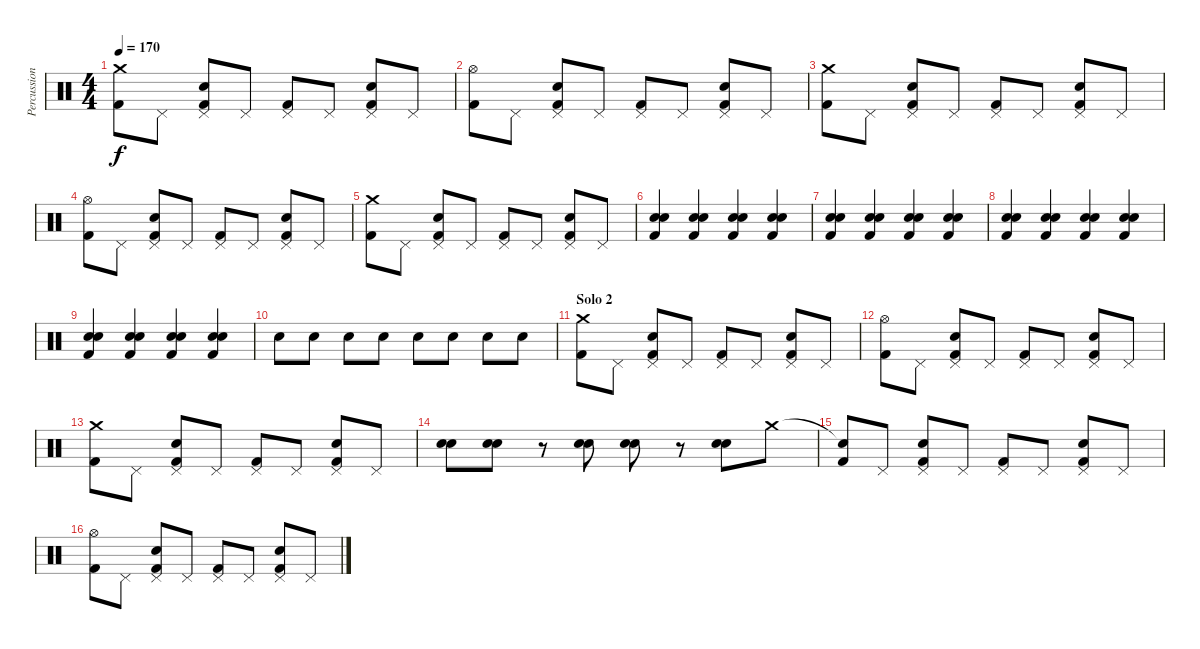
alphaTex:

\track ("Percussion" "Percussion") {instrument percussion}
\staff {score}
\articulation defaults
\ts (4 4)
\tempo 170
\clef neutral
\ks c
("Crash medium (hit)" "Kick (hit) 2").8{dy f} "Pedal Hi-Hat (hit)".8 ("Pedal Hi-Hat (hit)" "Electric Snare (hit)" "Kick (hit) 2").8 "Pedal Hi-Hat (hit)".8 ("Pedal Hi-Hat (hit)" "Kick (hit) 2").8 "Pedal Hi-Hat (hit)".8 ("Pedal Hi-Hat (hit)" "Electric Snare (hit)" "Kick (hit) 2").8 "Pedal Hi-Hat (hit)".8 |
("Hi-Hat (open)" "Kick (hit) 2").8 "Pedal Hi-Hat (hit)".8 ("Pedal Hi-Hat (hit)" "Electric Snare (hit)" "Kick (hit) 2").8 "Pedal Hi-Hat (hit)".8 ("Pedal Hi-Hat (hit)" "Kick (hit) 2").8 "Pedal Hi-Hat (hit)".8 ("Pedal Hi-Hat (hit)" "Electric Snare (hit)" "Kick (hit) 2").8 "Pedal Hi-Hat (hit)".8 |
("Crash medium (hit)" "Kick (hit) 2").8 "Pedal Hi-Hat (hit)".8 ("Pedal Hi-Hat (hit)" "Electric Snare (hit)" "Kick (hit) 2").8 "Pedal Hi-Hat (hit)".8 ("Pedal Hi-Hat (hit)" "Kick (hit) 2").8 "Pedal Hi-Hat (hit)".8 ("Pedal Hi-Hat (hit)" "Electric Snare (hit)" "Kick (hit) 2").8 "Pedal Hi-Hat (hit)".8 |
("Hi-Hat (open)" "Kick (hit) 2").8 "Pedal Hi-Hat (hit)".8 ("Pedal Hi-Hat (hit)" "Electric Snare (hit)" "Kick (hit) 2").8 "Pedal Hi-Hat (hit)".8 ("Pedal Hi-Hat (hit)" "Kick (hit) 2").8 "Pedal Hi-Hat (hit)".8 ("Pedal Hi-Hat (hit)" "Electric Snare (hit)" "Kick (hit) 2").8 "Pedal Hi-Hat (hit)".8 |
("Crash medium (hit)" "Kick (hit) 2").8 "Pedal Hi-Hat (hit)".8 ("Pedal Hi-Hat (hit)" "Electric Snare (hit)" "Kick (hit) 2").8 "Pedal Hi-Hat (hit)".8 ("Pedal Hi-Hat (hit)" "Kick (hit) 2").8 "Pedal Hi-Hat (hit)".8 ("Pedal Hi-Hat (hit)" "Electric Snare (hit)" "Kick (hit) 2").8 "Pedal Hi-Hat (hit)".8 |
("Electric Snare (hit)" "Electric Snare (hit)" "Kick (hit) 2").4 ("Electric Snare (hit)" "Electric Snare (hit)" "Kick (hit) 2").4 ("Electric Snare (hit)" "Electric Snare (hit)" "Kick (hit) 2").4 ("Electric Snare (hit)" "Electric Snare (hit)" "Kick (hit) 2").4 |
("Electric Snare (hit)" "Electric Snare (hit)" "Kick (hit) 2").4 ("Electric Snare (hit)" "Electric Snare (hit)" "Kick (hit) 2").4 ("Electric Snare (hit)" "Electric Snare (hit)" "Kick (hit) 2").4 ("Electric Snare (hit)" "Electric Snare (hit)" "Kick (hit) 2").4 |
("Electric Snare (hit)" "Electric Snare (hit)" "Kick (hit) 2").4 ("Electric Snare (hit)" "Electric Snare (hit)" "Kick (hit) 2").4 ("Electric Snare (hit)" "Electric Snare (hit)" "Kick (hit) 2").4 ("Electric Snare (hit)" "Electric Snare (hit)" "Kick (hit) 2").4 |
("Electric Snare (hit)" "Electric Snare (hit)" "Kick (hit) 2").4 ("Electric Snare (hit)" "Electric Snare (hit)" "Kick (hit) 2").4 ("Electric Snare (hit)" "Electric Snare (hit)" "Kick (hit) 2").4 ("Electric Snare (hit)" "Electric Snare (hit)" "Kick (hit) 2").4 |
"Electric Snare (hit)".8 "Electric Snare (hit)".8 "Electric Snare (hit)".8 "Electric Snare (hit)".8 "Electric Snare (hit)".8 "Electric Snare (hit)".8 "Electric Snare (hit)".8 "Electric Snare (hit)".8 |
\section ("" "Solo 2")
("Crash medium (hit)" "Kick (hit) 2").8 "Pedal Hi-Hat (hit)".8 ("Pedal Hi-Hat (hit)" "Electric Snare (hit)" "Kick (hit) 2").8 "Pedal Hi-Hat (hit)".8 ("Pedal Hi-Hat (hit)" "Kick (hit) 2").8 "Pedal Hi-Hat (hit)".8 ("Pedal Hi-Hat (hit)" "Electric Snare (hit)" "Kick (hit) 2").8 "Pedal Hi-Hat (hit)".8 |
("Hi-Hat (open)" "Kick (hit) 2").8 "Pedal Hi-Hat (hit)".8 ("Pedal Hi-Hat (hit)" "Electric Snare (hit)" "Kick (hit) 2").8 "Pedal Hi-Hat (hit)".8 ("Pedal Hi-Hat (hit)" "Kick (hit) 2").8 "Pedal Hi-Hat (hit)".8 ("Pedal Hi-Hat (hit)" "Electric Snare (hit)" "Kick (hit) 2").8 "Pedal Hi-Hat (hit)".8 |
("Crash medium (hit)" "Kick (hit) 2").8 "Pedal Hi-Hat (hit)".8 ("Pedal Hi-Hat (hit)" "Electric Snare (hit)" "Kick (hit) 2").8 "Pedal Hi-Hat (hit)".8 ("Pedal Hi-Hat (hit)" "Kick (hit) 2").8 "Pedal Hi-Hat (hit)".8 ("Pedal Hi-Hat (hit)" "Electric Snare (hit)" "Kick (hit) 2").8 "Pedal Hi-Hat (hit)".8 |
("Electric Snare (hit)" "Electric Snare (hit)").8 ("Electric Snare (hit)" "Electric Snare (hit)").8 r.8 ("Electric Snare (hit)" "Electric Snare (hit)").8 ("Electric Snare (hit)" "Electric Snare (hit)").8 r.8 ("Electric Snare (hit)" "Electric Snare (hit)").8 "Crash medium (hit)".8 |
("Snare (hit)"{t} "Kick (hit) 2").8 "Pedal Hi-Hat (hit)".8 ("Pedal Hi-Hat (hit)" "Electric Snare (hit)" "Kick (hit) 2").8 "Pedal Hi-Hat (hit)".8 ("Pedal Hi-Hat (hit)" "Kick (hit) 2").8 "Pedal Hi-Hat (hit)".8 ("Pedal Hi-Hat (hit)" "Electric Snare (hit)" "Kick (hit) 2").8 "Pedal Hi-Hat (hit)".8 |
("Hi-Hat (open)" "Kick (hit) 2").8 "Pedal Hi-Hat (hit)".8 ("Pedal Hi-Hat (hit)" "Electric Snare (hit)" "Kick (hit) 2").8 "Pedal Hi-Hat (hit)".8 ("Pedal Hi-Hat (hit)" "Kick (hit) 2").8 "Pedal Hi-Hat (hit)".8 ("Pedal Hi-Hat (hit)" "Electric Snare (hit)" "Kick (hit) 2").8 "Pedal Hi-Hat (hit)".8
